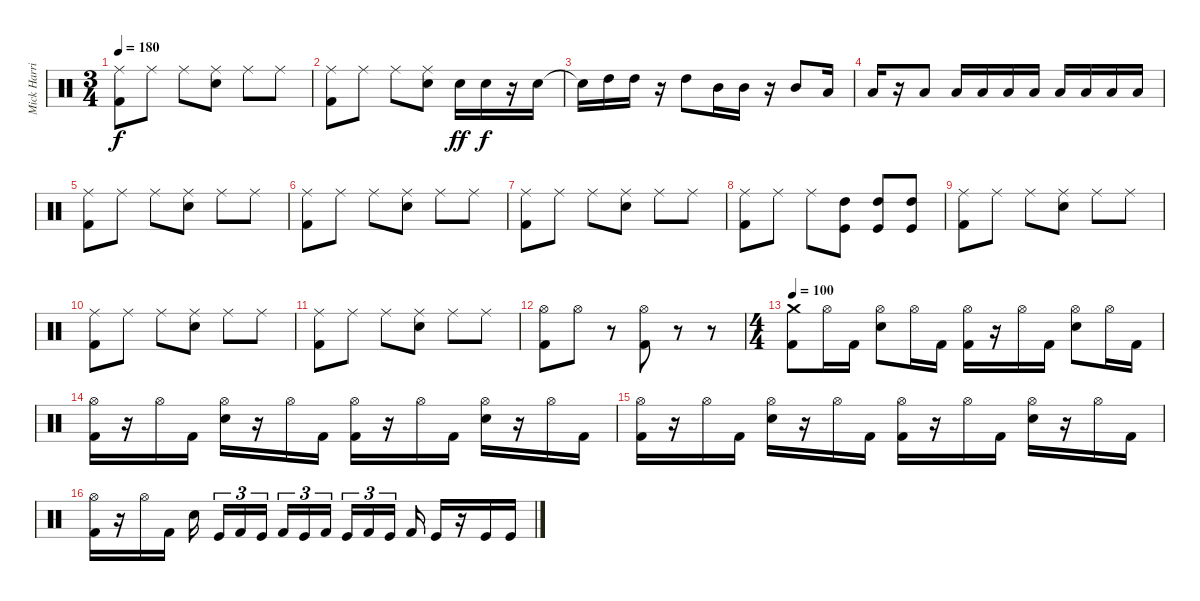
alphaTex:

\track ("Mick Harris (Drums)" "Mick Harri") {instrument percussion}
\staff {score}
\articulation defaults
\ts (3 4)
\tempo 180
\clef neutral
\ks c
("Kick (hit) 2" "Ride (middle)").8{dy f} "Ride (middle)".8 "Ride (middle)".8 ("Electric Snare (hit)" "Ride (middle)").8 "Ride (middle)".8 "Ride (middle)".8 |
("Kick (hit) 2" "Ride (middle)").8 "Ride (middle)".8 "Ride (middle)".8 ("Electric Snare (hit)" "Ride (middle)").8 "Electric Snare (hit)".16{dy ff} "Electric Snare (hit)".16{dy f} r.16 "Electric Snare (hit)".16 |
"Electric Snare (hit)"{t}.16 "High Tom (hit)".16 "High Tom (hit)".16 r.16 "High Tom (hit)".8 "Mid Tom (hit)".16 "Mid Tom (hit)".16 r.16 "Mid Tom (hit)".8 "Low Tom (hit)".16 |
"Low Tom (hit)".16 r.16 "Low Tom (hit)".8 "Low Tom (hit)".16 "Low Tom (hit)".16 "Low Tom (hit)".16 "Low Tom (hit)".16 "Low Tom (hit)".16 "Low Tom (hit)".16 "Low Tom (hit)".16 "Low Tom (hit)".16 |
("Kick (hit) 2" "Ride (middle)").8 "Ride (middle)".8 "Ride (middle)".8 ("Electric Snare (hit)" "Ride (middle)").8 "Ride (middle)".8 "Ride (middle)".8 |
("Kick (hit) 2" "Ride (middle)").8 "Ride (middle)".8 "Ride (middle)".8 ("Electric Snare (hit)" "Ride (middle)").8 "Ride (middle)".8 "Ride (middle)".8 |
("Kick (hit) 2" "Ride (middle)").8 "Ride (middle)".8 "Ride (middle)".8 ("Electric Snare (hit)" "Ride (middle)").8 "Ride (middle)".8 "Ride (middle)".8 |
("Kick (hit) 2" "Ride (middle)").8 "Ride (middle)".8 "Ride (middle)".8 ("Kick (hit)" "High Tom (hit)").8 ("Kick (hit)" "High Tom (hit)").8 ("Kick (hit)" "High Tom (hit)").8 |
("Kick (hit) 2" "Ride (middle)").8 "Ride (middle)".8 "Ride (middle)".8 ("Electric Snare (hit)" "Ride (middle)").8 "Ride (middle)".8 "Ride (middle)".8 |
("Kick (hit) 2" "Ride (middle)").8 "Ride (middle)".8 "Ride (middle)".8 ("Electric Snare (hit)" "Ride (middle)").8 "Ride (middle)".8 "Ride (middle)".8 |
("Kick (hit) 2" "Ride (middle)").8 "Ride (middle)".8 "Ride (middle)".8 ("Electric Snare (hit)" "Ride (middle)").8 "Ride (middle)".8 "Ride (middle)".8 |
("Kick (hit) 2" "Hi-Hat (open)").8 "Hi-Hat (open)".8{volume 0} r.8 ("Kick (hit) 2" "Hi-Hat (open)").8{volume 16} r.8 r.8 |
\ts (4 4)
\tempo 100
("Kick (hit) 2" "Crash medium (hit)").8 "Hi-Hat (open)".16 "Kick (hit) 2".16 ("Electric Snare (hit)" "Hi-Hat (open)").8 "Hi-Hat (open)".16 "Kick (hit) 2".16 ("Kick (hit) 2" "Hi-Hat (open)").16 r.16 "Hi-Hat (open)".16 "Kick (hit) 2".16 ("Electric Snare (hit)" "Hi-Hat (open)").8 "Hi-Hat (open)".16 "Kick (hit) 2".16 |
("Kick (hit) 2" "Hi-Hat (open)").16 r.16 "Hi-Hat (open)".16 "Kick (hit) 2".16 ("Electric Snare (hit)" "Hi-Hat (open)").16 r.16 "Hi-Hat (open)".16 "Kick (hit) 2".16 ("Kick (hit) 2" "Hi-Hat (open)").16 r.16 "Hi-Hat (open)".16 "Kick (hit) 2".16 ("Electric Snare (hit)" "Hi-Hat (open)").16 r.16 "Hi-Hat (open)".16 "Kick (hit) 2".16 |
("Kick (hit) 2" "Hi-Hat (open)").16 r.16 "Hi-Hat (open)".16 "Kick (hit) 2".16 ("Electric Snare (hit)" "Hi-Hat (open)").16 r.16 "Hi-Hat (open)".16 "Kick (hit) 2".16 ("Kick (hit) 2" "Hi-Hat (open)").16 r.16 "Hi-Hat (open)".16 "Kick (hit) 2".16 ("Electric Snare (hit)" "Hi-Hat (open)").16 r.16 "Hi-Hat (open)".16 "Kick (hit) 2".16 |
("Kick (hit) 2" "Hi-Hat (open)").16 r.16 "Hi-Hat (open)".16 "Kick (hit) 2".16 "Electric Snare (hit)".16 "Kick (hit)".16{tu (3 2)} "Kick (hit) 2".16{tu (3 2)} "Kick (hit)".16{tu (3 2)} "Kick (hit) 2".16{tu (3 2)} "Kick (hit)".16{tu (3 2)} "Kick (hit) 2".16{tu (3 2)} "Kick (hit)".16{tu (3 2)} "Kick (hit) 2".16{tu (3 2)} "Kick (hit)".16{tu (3 2)} "Kick (hit) 2".16 "Kick (hit)".16 r.16 "Kick (hit)".16 "Kick (hit)".16
